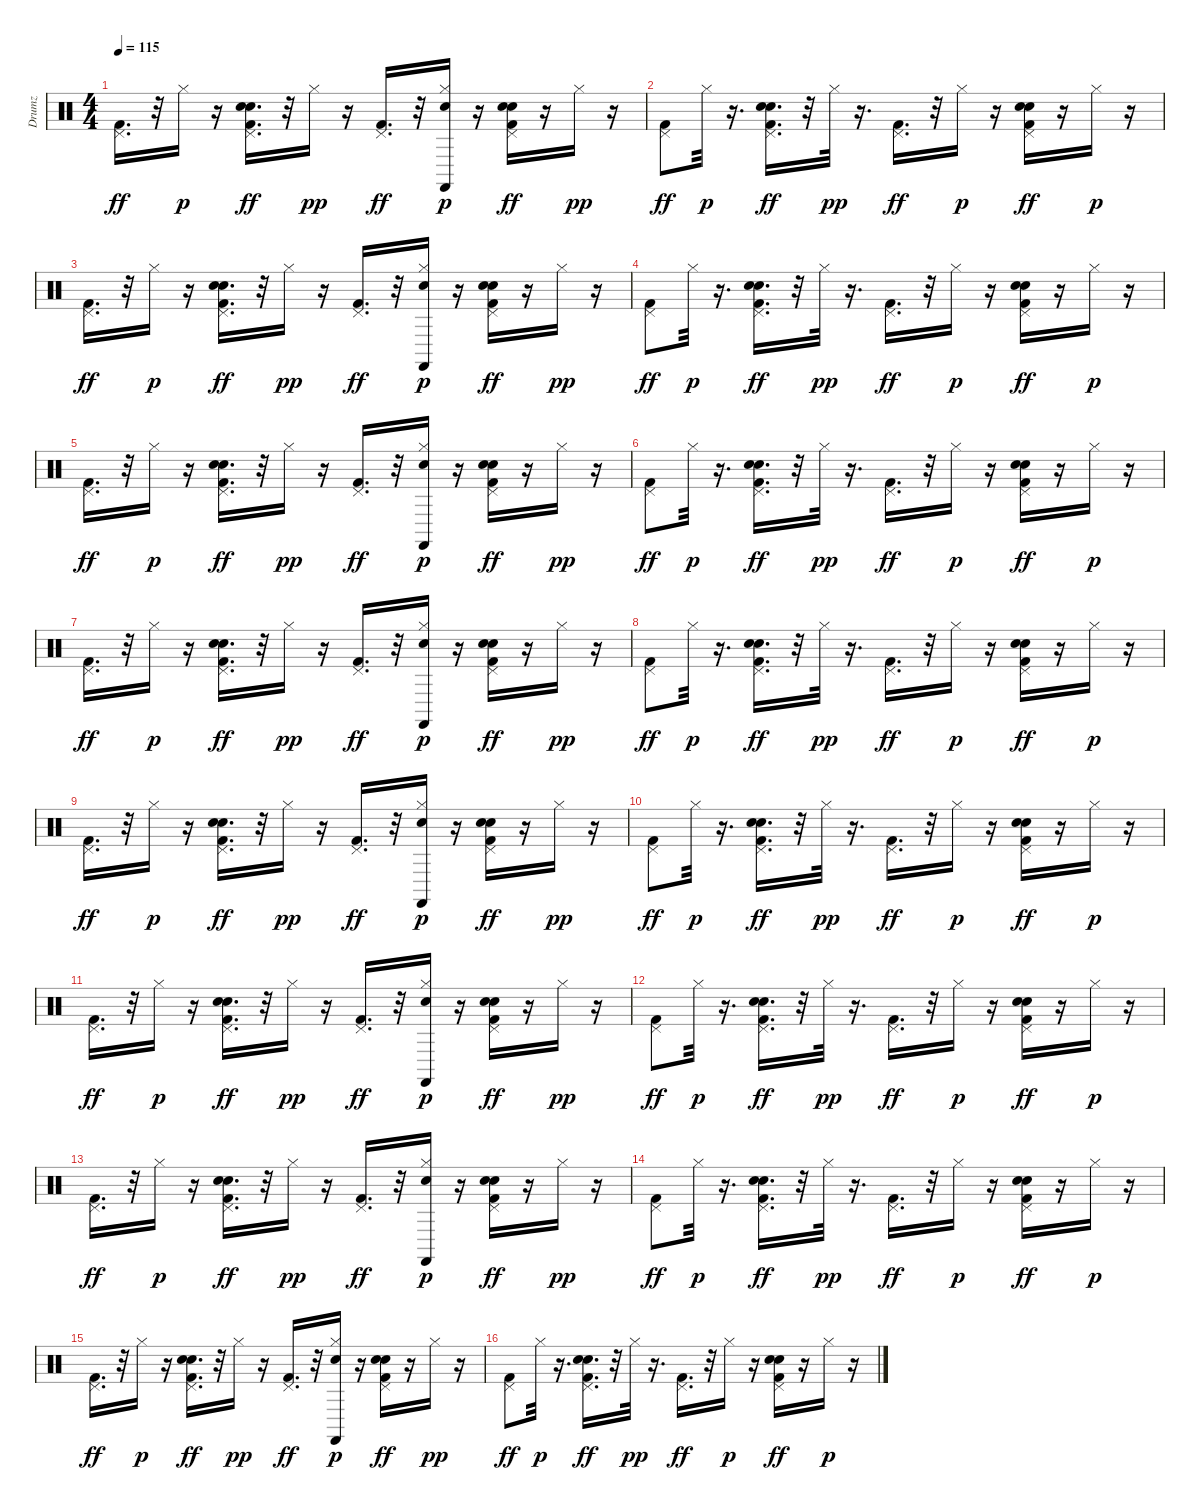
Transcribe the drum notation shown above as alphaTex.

\track ("Drumz" "Drumz") {instrument percussion}
\staff {score}
\articulation defaults
\ts (4 4)
\tempo 115
\clef neutral
\ks c
("Kick (hit) 2" "Pedal Hi-Hat (hit)").16{d dy ff} r.32 "Hi-Hat (closed)".16{dy p} r.16 ("Kick (hit) 2" "Pedal Hi-Hat (hit)" "Hand Clap (hit)" "Electric Snare (hit)").16{d dy ff} r.32 "Hi-Hat (closed)".16{dy pp} r.16 ("Pedal Hi-Hat (hit)" "Kick (hit) 2").16{d dy ff} r.32 ("Hi-Hat (closed)" "Castanets (hit)" "Hand Clap (hit)").16{dy p} r.16 ("Pedal Hi-Hat (hit)" "Kick (hit) 2" "Hand Clap (hit)" "Electric Snare (hit)").16{dy ff} r.16 "Hi-Hat (closed)".16{dy pp} r.16 |
("Pedal Hi-Hat (hit)" "Kick (hit) 2").8{dy ff} "Hi-Hat (closed)".32{dy p} r.16{d} ("Pedal Hi-Hat (hit)" "Kick (hit) 2" "Hand Clap (hit)" "Electric Snare (hit)").16{d dy ff} r.32 "Hi-Hat (closed)".32{dy pp} r.16{d} ("Pedal Hi-Hat (hit)" "Kick (hit) 2").16{d dy ff} r.32 "Hi-Hat (closed)".16{dy p} r.16 ("Pedal Hi-Hat (hit)" "Kick (hit) 2" "Electric Snare (hit)" "Hand Clap (hit)").16{dy ff} r.16 "Hi-Hat (closed)".16{dy p} r.16 |
("Kick (hit) 2" "Pedal Hi-Hat (hit)").16{d dy ff} r.32 "Hi-Hat (closed)".16{dy p} r.16 ("Kick (hit) 2" "Pedal Hi-Hat (hit)" "Hand Clap (hit)" "Electric Snare (hit)").16{d dy ff} r.32 "Hi-Hat (closed)".16{dy pp} r.16 ("Pedal Hi-Hat (hit)" "Kick (hit) 2").16{d dy ff} r.32 ("Hi-Hat (closed)" "Castanets (hit)" "Hand Clap (hit)").16{dy p} r.16 ("Pedal Hi-Hat (hit)" "Kick (hit) 2" "Hand Clap (hit)" "Electric Snare (hit)").16{dy ff} r.16 "Hi-Hat (closed)".16{dy pp} r.16 |
("Pedal Hi-Hat (hit)" "Kick (hit) 2").8{dy ff} "Hi-Hat (closed)".32{dy p} r.16{d} ("Pedal Hi-Hat (hit)" "Kick (hit) 2" "Hand Clap (hit)" "Electric Snare (hit)").16{d dy ff} r.32 "Hi-Hat (closed)".32{dy pp} r.16{d} ("Pedal Hi-Hat (hit)" "Kick (hit) 2").16{d dy ff} r.32 "Hi-Hat (closed)".16{dy p} r.16 ("Pedal Hi-Hat (hit)" "Kick (hit) 2" "Electric Snare (hit)" "Hand Clap (hit)").16{dy ff} r.16 "Hi-Hat (closed)".16{dy p} r.16 |
("Kick (hit) 2" "Pedal Hi-Hat (hit)").16{d dy ff} r.32 "Hi-Hat (closed)".16{dy p} r.16 ("Kick (hit) 2" "Pedal Hi-Hat (hit)" "Hand Clap (hit)" "Electric Snare (hit)").16{d dy ff} r.32 "Hi-Hat (closed)".16{dy pp} r.16 ("Pedal Hi-Hat (hit)" "Kick (hit) 2").16{d dy ff} r.32 ("Hi-Hat (closed)" "Castanets (hit)" "Hand Clap (hit)").16{dy p} r.16 ("Pedal Hi-Hat (hit)" "Kick (hit) 2" "Hand Clap (hit)" "Electric Snare (hit)").16{dy ff} r.16 "Hi-Hat (closed)".16{dy pp} r.16 |
("Pedal Hi-Hat (hit)" "Kick (hit) 2").8{dy ff} "Hi-Hat (closed)".32{dy p} r.16{d} ("Pedal Hi-Hat (hit)" "Kick (hit) 2" "Hand Clap (hit)" "Electric Snare (hit)").16{d dy ff} r.32 "Hi-Hat (closed)".32{dy pp} r.16{d} ("Pedal Hi-Hat (hit)" "Kick (hit) 2").16{d dy ff} r.32 "Hi-Hat (closed)".16{dy p} r.16 ("Pedal Hi-Hat (hit)" "Kick (hit) 2" "Electric Snare (hit)" "Hand Clap (hit)").16{dy ff} r.16 "Hi-Hat (closed)".16{dy p} r.16 |
("Kick (hit) 2" "Pedal Hi-Hat (hit)").16{d dy ff} r.32 "Hi-Hat (closed)".16{dy p} r.16 ("Kick (hit) 2" "Pedal Hi-Hat (hit)" "Hand Clap (hit)" "Electric Snare (hit)").16{d dy ff} r.32 "Hi-Hat (closed)".16{dy pp} r.16 ("Pedal Hi-Hat (hit)" "Kick (hit) 2").16{d dy ff} r.32 ("Hi-Hat (closed)" "Castanets (hit)" "Hand Clap (hit)").16{dy p} r.16 ("Pedal Hi-Hat (hit)" "Kick (hit) 2" "Hand Clap (hit)" "Electric Snare (hit)").16{dy ff} r.16 "Hi-Hat (closed)".16{dy pp} r.16 |
("Pedal Hi-Hat (hit)" "Kick (hit) 2").8{dy ff} "Hi-Hat (closed)".32{dy p} r.16{d} ("Pedal Hi-Hat (hit)" "Kick (hit) 2" "Hand Clap (hit)" "Electric Snare (hit)").16{d dy ff} r.32 "Hi-Hat (closed)".32{dy pp} r.16{d} ("Pedal Hi-Hat (hit)" "Kick (hit) 2").16{d dy ff} r.32 "Hi-Hat (closed)".16{dy p} r.16 ("Pedal Hi-Hat (hit)" "Kick (hit) 2" "Electric Snare (hit)" "Hand Clap (hit)").16{dy ff} r.16 "Hi-Hat (closed)".16{dy p} r.16 |
("Kick (hit) 2" "Pedal Hi-Hat (hit)").16{d dy ff} r.32 "Hi-Hat (closed)".16{dy p} r.16 ("Kick (hit) 2" "Pedal Hi-Hat (hit)" "Hand Clap (hit)" "Electric Snare (hit)").16{d dy ff} r.32 "Hi-Hat (closed)".16{dy pp} r.16 ("Pedal Hi-Hat (hit)" "Kick (hit) 2").16{d dy ff} r.32 ("Hi-Hat (closed)" "Castanets (hit)" "Hand Clap (hit)").16{dy p} r.16 ("Pedal Hi-Hat (hit)" "Kick (hit) 2" "Hand Clap (hit)" "Electric Snare (hit)").16{dy ff} r.16 "Hi-Hat (closed)".16{dy pp} r.16 |
("Pedal Hi-Hat (hit)" "Kick (hit) 2").8{dy ff} "Hi-Hat (closed)".32{dy p} r.16{d} ("Pedal Hi-Hat (hit)" "Kick (hit) 2" "Hand Clap (hit)" "Electric Snare (hit)").16{d dy ff} r.32 "Hi-Hat (closed)".32{dy pp} r.16{d} ("Pedal Hi-Hat (hit)" "Kick (hit) 2").16{d dy ff} r.32 "Hi-Hat (closed)".16{dy p} r.16 ("Pedal Hi-Hat (hit)" "Kick (hit) 2" "Electric Snare (hit)" "Hand Clap (hit)").16{dy ff} r.16 "Hi-Hat (closed)".16{dy p} r.16 |
("Kick (hit) 2" "Pedal Hi-Hat (hit)").16{d dy ff} r.32 "Hi-Hat (closed)".16{dy p} r.16 ("Kick (hit) 2" "Pedal Hi-Hat (hit)" "Hand Clap (hit)" "Electric Snare (hit)").16{d dy ff} r.32 "Hi-Hat (closed)".16{dy pp} r.16 ("Pedal Hi-Hat (hit)" "Kick (hit) 2").16{d dy ff} r.32 ("Hi-Hat (closed)" "Castanets (hit)" "Hand Clap (hit)").16{dy p} r.16 ("Pedal Hi-Hat (hit)" "Kick (hit) 2" "Hand Clap (hit)" "Electric Snare (hit)").16{dy ff} r.16 "Hi-Hat (closed)".16{dy pp} r.16 |
("Pedal Hi-Hat (hit)" "Kick (hit) 2").8{dy ff} "Hi-Hat (closed)".32{dy p} r.16{d} ("Pedal Hi-Hat (hit)" "Kick (hit) 2" "Hand Clap (hit)" "Electric Snare (hit)").16{d dy ff} r.32 "Hi-Hat (closed)".32{dy pp} r.16{d} ("Pedal Hi-Hat (hit)" "Kick (hit) 2").16{d dy ff} r.32 "Hi-Hat (closed)".16{dy p} r.16 ("Pedal Hi-Hat (hit)" "Kick (hit) 2" "Electric Snare (hit)" "Hand Clap (hit)").16{dy ff} r.16 "Hi-Hat (closed)".16{dy p} r.16 |
("Kick (hit) 2" "Pedal Hi-Hat (hit)").16{d dy ff} r.32 "Hi-Hat (closed)".16{dy p} r.16 ("Kick (hit) 2" "Pedal Hi-Hat (hit)" "Hand Clap (hit)" "Electric Snare (hit)").16{d dy ff} r.32 "Hi-Hat (closed)".16{dy pp} r.16 ("Pedal Hi-Hat (hit)" "Kick (hit) 2").16{d dy ff} r.32 ("Hi-Hat (closed)" "Castanets (hit)" "Hand Clap (hit)").16{dy p} r.16 ("Pedal Hi-Hat (hit)" "Kick (hit) 2" "Hand Clap (hit)" "Electric Snare (hit)").16{dy ff} r.16 "Hi-Hat (closed)".16{dy pp} r.16 |
("Pedal Hi-Hat (hit)" "Kick (hit) 2").8{dy ff} "Hi-Hat (closed)".32{dy p} r.16{d} ("Pedal Hi-Hat (hit)" "Kick (hit) 2" "Hand Clap (hit)" "Electric Snare (hit)").16{d dy ff} r.32 "Hi-Hat (closed)".32{dy pp} r.16{d} ("Pedal Hi-Hat (hit)" "Kick (hit) 2").16{d dy ff} r.32 "Hi-Hat (closed)".16{dy p} r.16 ("Pedal Hi-Hat (hit)" "Kick (hit) 2" "Electric Snare (hit)" "Hand Clap (hit)").16{dy ff} r.16 "Hi-Hat (closed)".16{dy p} r.16 |
("Kick (hit) 2" "Pedal Hi-Hat (hit)").16{d dy ff} r.32 "Hi-Hat (closed)".16{dy p} r.16 ("Kick (hit) 2" "Pedal Hi-Hat (hit)" "Hand Clap (hit)" "Electric Snare (hit)").16{d dy ff} r.32 "Hi-Hat (closed)".16{dy pp} r.16 ("Pedal Hi-Hat (hit)" "Kick (hit) 2").16{d dy ff} r.32 ("Hi-Hat (closed)" "Castanets (hit)" "Hand Clap (hit)").16{dy p} r.16 ("Pedal Hi-Hat (hit)" "Kick (hit) 2" "Hand Clap (hit)" "Electric Snare (hit)").16{dy ff} r.16 "Hi-Hat (closed)".16{dy pp} r.16 |
("Pedal Hi-Hat (hit)" "Kick (hit) 2").8{dy ff} "Hi-Hat (closed)".32{dy p} r.16{d} ("Pedal Hi-Hat (hit)" "Kick (hit) 2" "Hand Clap (hit)" "Electric Snare (hit)").16{d dy ff} r.32 "Hi-Hat (closed)".32{dy pp} r.16{d} ("Pedal Hi-Hat (hit)" "Kick (hit) 2").16{d dy ff} r.32 "Hi-Hat (closed)".16{dy p} r.16 ("Pedal Hi-Hat (hit)" "Kick (hit) 2" "Electric Snare (hit)" "Hand Clap (hit)").16{dy ff} r.16 "Hi-Hat (closed)".16{dy p} r.16
